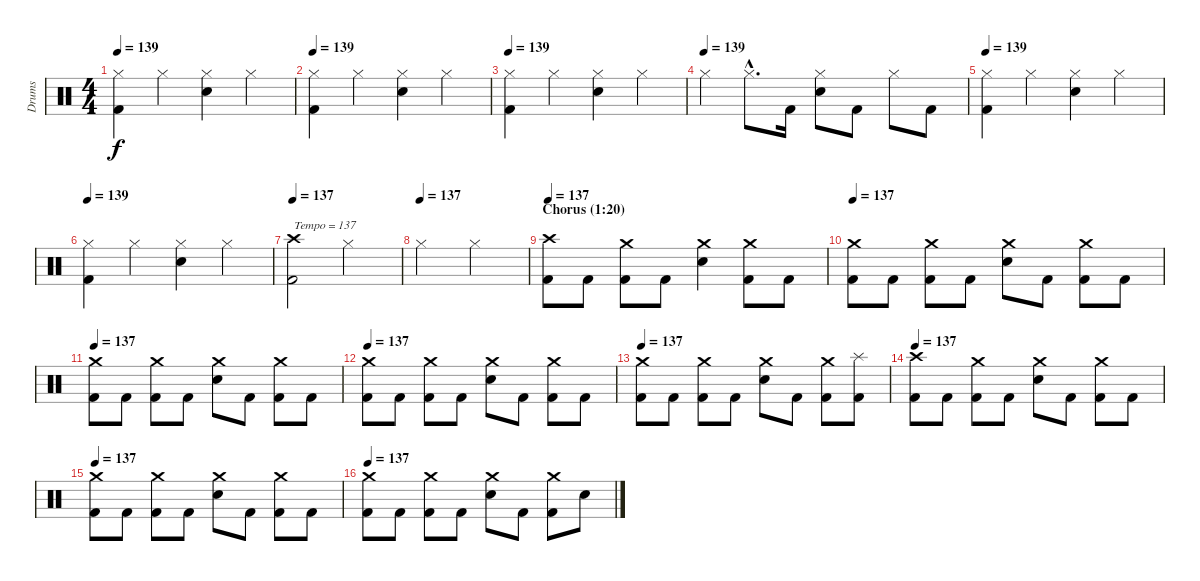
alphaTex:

\track ("Drums" "Drums") {instrument percussion}
\staff {score}
\articulation defaults
\ts (4 4)
\tempo 139
\clef neutral
\ks c
("Hi-Hat (closed)" "Kick (hit) 2").4{dy f} "Hi-Hat (closed)".4 ("Hi-Hat (closed)" "Snare (hit) 2").4 "Hi-Hat (closed)".4 |
\tempo 139
("Hi-Hat (closed)" "Kick (hit) 2").4 "Hi-Hat (closed)".4 ("Hi-Hat (closed)" "Snare (hit) 2").4 "Hi-Hat (closed)".4 |
\tempo 139
("Hi-Hat (closed)" "Kick (hit) 2").4 "Hi-Hat (closed)".4 ("Hi-Hat (closed)" "Snare (hit) 2").4 "Hi-Hat (closed)".4 |
\tempo (139)
"Hi-Hat (closed)".4 "Hi-Hat (closed)"{hac}.8{d} "Kick (hit) 2".16 ("Hi-Hat (closed)" "Snare (hit) 2").8 "Kick (hit) 2".8 "Hi-Hat (closed)".8 "Kick (hit) 2".8 |
\tempo 139
("Hi-Hat (closed)" "Kick (hit) 2").4 "Hi-Hat (closed)".4 ("Hi-Hat (closed)" "Snare (hit) 2").4 "Hi-Hat (closed)".4 |
\tempo 139
("Hi-Hat (closed)" "Kick (hit) 2").4 "Hi-Hat (closed)".4 ("Hi-Hat (closed)" "Snare (hit) 2").4 "Hi-Hat (closed)".4 |
\tempo 137
("Crash high (hit)" "Kick (hit) 2").2{txt "Tempo = 137"} "Hi-Hat (closed)".2 |
\tempo (137)
"Hi-Hat (closed)".2 "Hi-Hat (closed)".2 |
\section ("" "Chorus (1:20)")
\tempo 137
("Crash high (hit)" "Kick (hit) 2").8 "Kick (hit) 2".8 ("Crash medium (hit)" "Kick (hit) 2").8 "Kick (hit) 2".8 ("Crash medium (hit)" "Snare (hit) 2").4 ("Crash medium (hit)" "Kick (hit) 2").8 "Kick (hit) 2".8 |
\tempo 137
("Crash medium (hit)" "Kick (hit) 2").8 "Kick (hit) 2".8 ("Crash medium (hit)" "Kick (hit) 2").8 "Kick (hit) 2".8 ("Crash medium (hit)" "Snare (hit) 2").8 "Kick (hit) 2".8 ("Crash medium (hit)" "Kick (hit) 2").8 "Kick (hit) 2".8 |
\tempo 137
("Crash medium (hit)" "Kick (hit) 2").8 "Kick (hit) 2".8 ("Crash medium (hit)" "Kick (hit) 2").8 "Kick (hit) 2".8 ("Crash medium (hit)" "Snare (hit) 2").8 "Kick (hit) 2".8 ("Crash medium (hit)" "Kick (hit) 2").8 "Kick (hit) 2".8 |
\tempo 137
("Crash medium (hit)" "Kick (hit) 2").8 "Kick (hit) 2".8 ("Crash medium (hit)" "Kick (hit) 2").8 "Kick (hit) 2".8 ("Crash medium (hit)" "Snare (hit) 2").8 "Kick (hit) 2".8 ("Crash medium (hit)" "Kick (hit) 2").8 "Kick (hit) 2".8 |
\tempo 137
("Crash medium (hit)" "Kick (hit) 2").8 "Kick (hit) 2".8 ("Crash medium (hit)" "Kick (hit) 2").8 "Kick (hit) 2".8 ("Crash medium (hit)" "Snare (hit) 2").8 "Kick (hit) 2".8 ("Crash medium (hit)" "Kick (hit) 2").8 ("Splash (hit)" "Kick (hit) 2").8 |
\tempo 137
("Crash high (hit)" "Kick (hit) 2").8 "Kick (hit) 2".8 ("Crash medium (hit)" "Kick (hit) 2").8 "Kick (hit) 2".8 ("Crash medium (hit)" "Snare (hit) 2").8 "Kick (hit) 2".8 ("Crash medium (hit)" "Kick (hit) 2").8 "Kick (hit) 2".8 |
\tempo 137
("Crash medium (hit)" "Kick (hit) 2").8 "Kick (hit) 2".8 ("Crash medium (hit)" "Kick (hit) 2").8 "Kick (hit) 2".8 ("Crash medium (hit)" "Snare (hit) 2").8 "Kick (hit) 2".8 ("Crash medium (hit)" "Kick (hit) 2").8 "Kick (hit) 2".8 |
\tempo 137
("Crash medium (hit)" "Kick (hit) 2").8 "Kick (hit) 2".8 ("Crash medium (hit)" "Kick (hit) 2").8 "Kick (hit) 2".8 ("Crash medium (hit)" "Snare (hit) 2").8 "Kick (hit) 2".8 ("Crash medium (hit)" "Kick (hit) 2").8 "Snare (hit) 2".8
